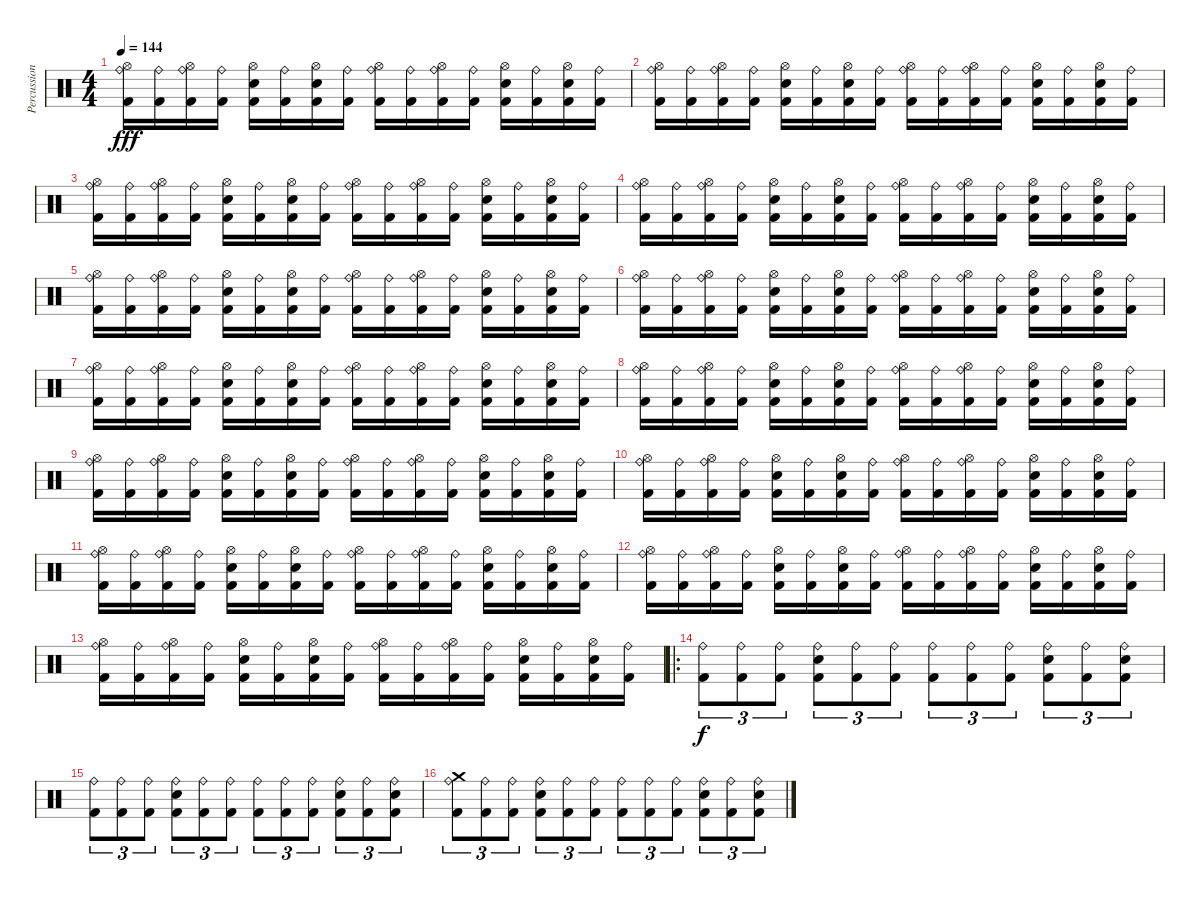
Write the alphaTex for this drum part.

\track ("Percussion -  Bard Faust" "Percussion") {instrument percussion}
\staff {score}
\articulation defaults
\ts (4 4)
\tempo 144
\clef neutral
\ks c
("Hi-Hat (open)" "Ride (bell)" "Kick (hit) 2").16{dy fff} ("Ride (bell)" "Kick (hit) 2").16 ("Hi-Hat (open)" "Ride (bell)" "Kick (hit) 2").16 ("Ride (bell)" "Kick (hit) 2").16 ("Hi-Hat (open)" "Electric Snare (hit)" "Kick (hit) 2").16 ("Ride (bell)" "Kick (hit) 2").16 ("Hi-Hat (open)" "Electric Snare (hit)" "Kick (hit) 2").16 ("Ride (bell)" "Kick (hit) 2").16 ("Hi-Hat (open)" "Ride (bell)" "Kick (hit) 2").16 ("Ride (bell)" "Kick (hit) 2").16 ("Hi-Hat (open)" "Ride (bell)" "Kick (hit) 2").16 ("Ride (bell)" "Kick (hit) 2").16 ("Hi-Hat (open)" "Electric Snare (hit)" "Kick (hit) 2").16 ("Ride (bell)" "Kick (hit) 2").16 ("Hi-Hat (open)" "Electric Snare (hit)" "Kick (hit) 2").16 ("Ride (bell)" "Kick (hit) 2").16 |
("Hi-Hat (open)" "Ride (bell)" "Kick (hit) 2").16 ("Ride (bell)" "Kick (hit) 2").16 ("Hi-Hat (open)" "Ride (bell)" "Kick (hit) 2").16 ("Ride (bell)" "Kick (hit) 2").16 ("Hi-Hat (open)" "Electric Snare (hit)" "Kick (hit) 2").16 ("Ride (bell)" "Kick (hit) 2").16 ("Hi-Hat (open)" "Electric Snare (hit)" "Kick (hit) 2").16 ("Ride (bell)" "Kick (hit) 2").16 ("Hi-Hat (open)" "Ride (bell)" "Kick (hit) 2").16 ("Ride (bell)" "Kick (hit) 2").16 ("Hi-Hat (open)" "Ride (bell)" "Kick (hit) 2").16 ("Ride (bell)" "Kick (hit) 2").16 ("Hi-Hat (open)" "Electric Snare (hit)" "Kick (hit) 2").16 ("Ride (bell)" "Kick (hit) 2").16 ("Hi-Hat (open)" "Electric Snare (hit)" "Kick (hit) 2").16 ("Ride (bell)" "Kick (hit) 2").16 |
("Hi-Hat (open)" "Ride (bell)" "Kick (hit) 2").16 ("Ride (bell)" "Kick (hit) 2").16 ("Hi-Hat (open)" "Ride (bell)" "Kick (hit) 2").16 ("Ride (bell)" "Kick (hit) 2").16 ("Hi-Hat (open)" "Electric Snare (hit)" "Kick (hit) 2").16 ("Ride (bell)" "Kick (hit) 2").16 ("Hi-Hat (open)" "Electric Snare (hit)" "Kick (hit) 2").16 ("Ride (bell)" "Kick (hit) 2").16 ("Hi-Hat (open)" "Ride (bell)" "Kick (hit) 2").16 ("Ride (bell)" "Kick (hit) 2").16 ("Hi-Hat (open)" "Ride (bell)" "Kick (hit) 2").16 ("Ride (bell)" "Kick (hit) 2").16 ("Hi-Hat (open)" "Electric Snare (hit)" "Kick (hit) 2").16 ("Ride (bell)" "Kick (hit) 2").16 ("Hi-Hat (open)" "Electric Snare (hit)" "Kick (hit) 2").16 ("Ride (bell)" "Kick (hit) 2").16 |
("Hi-Hat (open)" "Ride (bell)" "Kick (hit) 2").16 ("Ride (bell)" "Kick (hit) 2").16 ("Hi-Hat (open)" "Ride (bell)" "Kick (hit) 2").16 ("Ride (bell)" "Kick (hit) 2").16 ("Hi-Hat (open)" "Electric Snare (hit)" "Kick (hit) 2").16 ("Ride (bell)" "Kick (hit) 2").16 ("Hi-Hat (open)" "Electric Snare (hit)" "Kick (hit) 2").16 ("Ride (bell)" "Kick (hit) 2").16 ("Hi-Hat (open)" "Ride (bell)" "Kick (hit) 2").16 ("Ride (bell)" "Kick (hit) 2").16 ("Hi-Hat (open)" "Ride (bell)" "Kick (hit) 2").16 ("Ride (bell)" "Kick (hit) 2").16 ("Hi-Hat (open)" "Electric Snare (hit)" "Kick (hit) 2").16 ("Ride (bell)" "Kick (hit) 2").16 ("Hi-Hat (open)" "Electric Snare (hit)" "Kick (hit) 2").16 ("Ride (bell)" "Kick (hit) 2").16 |
("Hi-Hat (open)" "Ride (bell)" "Kick (hit) 2").16 ("Ride (bell)" "Kick (hit) 2").16 ("Hi-Hat (open)" "Ride (bell)" "Kick (hit) 2").16 ("Ride (bell)" "Kick (hit) 2").16 ("Hi-Hat (open)" "Electric Snare (hit)" "Kick (hit) 2").16 ("Ride (bell)" "Kick (hit) 2").16 ("Hi-Hat (open)" "Electric Snare (hit)" "Kick (hit) 2").16 ("Ride (bell)" "Kick (hit) 2").16 ("Hi-Hat (open)" "Ride (bell)" "Kick (hit) 2").16 ("Ride (bell)" "Kick (hit) 2").16 ("Hi-Hat (open)" "Ride (bell)" "Kick (hit) 2").16 ("Ride (bell)" "Kick (hit) 2").16 ("Hi-Hat (open)" "Electric Snare (hit)" "Kick (hit) 2").16 ("Ride (bell)" "Kick (hit) 2").16 ("Hi-Hat (open)" "Electric Snare (hit)" "Kick (hit) 2").16 ("Ride (bell)" "Kick (hit) 2").16 |
("Hi-Hat (open)" "Ride (bell)" "Kick (hit) 2").16 ("Ride (bell)" "Kick (hit) 2").16 ("Hi-Hat (open)" "Ride (bell)" "Kick (hit) 2").16 ("Ride (bell)" "Kick (hit) 2").16 ("Hi-Hat (open)" "Electric Snare (hit)" "Kick (hit) 2").16 ("Ride (bell)" "Kick (hit) 2").16 ("Hi-Hat (open)" "Electric Snare (hit)" "Kick (hit) 2").16 ("Ride (bell)" "Kick (hit) 2").16 ("Hi-Hat (open)" "Ride (bell)" "Kick (hit) 2").16 ("Ride (bell)" "Kick (hit) 2").16 ("Hi-Hat (open)" "Ride (bell)" "Kick (hit) 2").16 ("Ride (bell)" "Kick (hit) 2").16 ("Hi-Hat (open)" "Electric Snare (hit)" "Kick (hit) 2").16 ("Ride (bell)" "Kick (hit) 2").16 ("Hi-Hat (open)" "Electric Snare (hit)" "Kick (hit) 2").16 ("Ride (bell)" "Kick (hit) 2").16 |
("Hi-Hat (open)" "Ride (bell)" "Kick (hit) 2").16 ("Ride (bell)" "Kick (hit) 2").16 ("Hi-Hat (open)" "Ride (bell)" "Kick (hit) 2").16 ("Ride (bell)" "Kick (hit) 2").16 ("Hi-Hat (open)" "Electric Snare (hit)" "Kick (hit) 2").16 ("Ride (bell)" "Kick (hit) 2").16 ("Hi-Hat (open)" "Electric Snare (hit)" "Kick (hit) 2").16 ("Ride (bell)" "Kick (hit) 2").16 ("Hi-Hat (open)" "Ride (bell)" "Kick (hit) 2").16 ("Ride (bell)" "Kick (hit) 2").16 ("Hi-Hat (open)" "Ride (bell)" "Kick (hit) 2").16 ("Ride (bell)" "Kick (hit) 2").16 ("Hi-Hat (open)" "Electric Snare (hit)" "Kick (hit) 2").16 ("Ride (bell)" "Kick (hit) 2").16 ("Hi-Hat (open)" "Electric Snare (hit)" "Kick (hit) 2").16 ("Ride (bell)" "Kick (hit) 2").16 |
("Hi-Hat (open)" "Ride (bell)" "Kick (hit) 2").16 ("Ride (bell)" "Kick (hit) 2").16 ("Hi-Hat (open)" "Ride (bell)" "Kick (hit) 2").16 ("Ride (bell)" "Kick (hit) 2").16 ("Hi-Hat (open)" "Electric Snare (hit)" "Kick (hit) 2").16 ("Ride (bell)" "Kick (hit) 2").16 ("Hi-Hat (open)" "Electric Snare (hit)" "Kick (hit) 2").16 ("Ride (bell)" "Kick (hit) 2").16 ("Hi-Hat (open)" "Ride (bell)" "Kick (hit) 2").16 ("Ride (bell)" "Kick (hit) 2").16 ("Hi-Hat (open)" "Ride (bell)" "Kick (hit) 2").16 ("Ride (bell)" "Kick (hit) 2").16 ("Hi-Hat (open)" "Electric Snare (hit)" "Kick (hit) 2").16 ("Ride (bell)" "Kick (hit) 2").16 ("Hi-Hat (open)" "Electric Snare (hit)" "Kick (hit) 2").16 ("Ride (bell)" "Kick (hit) 2").16 |
("Hi-Hat (open)" "Ride (bell)" "Kick (hit) 2").16 ("Ride (bell)" "Kick (hit) 2").16 ("Hi-Hat (open)" "Ride (bell)" "Kick (hit) 2").16 ("Ride (bell)" "Kick (hit) 2").16 ("Hi-Hat (open)" "Electric Snare (hit)" "Kick (hit) 2").16 ("Ride (bell)" "Kick (hit) 2").16 ("Hi-Hat (open)" "Electric Snare (hit)" "Kick (hit) 2").16 ("Ride (bell)" "Kick (hit) 2").16 ("Hi-Hat (open)" "Ride (bell)" "Kick (hit) 2").16 ("Ride (bell)" "Kick (hit) 2").16 ("Hi-Hat (open)" "Ride (bell)" "Kick (hit) 2").16 ("Ride (bell)" "Kick (hit) 2").16 ("Hi-Hat (open)" "Electric Snare (hit)" "Kick (hit) 2").16 ("Ride (bell)" "Kick (hit) 2").16 ("Hi-Hat (open)" "Electric Snare (hit)" "Kick (hit) 2").16 ("Ride (bell)" "Kick (hit) 2").16 |
("Hi-Hat (open)" "Ride (bell)" "Kick (hit) 2").16 ("Ride (bell)" "Kick (hit) 2").16 ("Hi-Hat (open)" "Ride (bell)" "Kick (hit) 2").16 ("Ride (bell)" "Kick (hit) 2").16 ("Hi-Hat (open)" "Electric Snare (hit)" "Kick (hit) 2").16 ("Ride (bell)" "Kick (hit) 2").16 ("Hi-Hat (open)" "Electric Snare (hit)" "Kick (hit) 2").16 ("Ride (bell)" "Kick (hit) 2").16 ("Hi-Hat (open)" "Ride (bell)" "Kick (hit) 2").16 ("Ride (bell)" "Kick (hit) 2").16 ("Hi-Hat (open)" "Ride (bell)" "Kick (hit) 2").16 ("Ride (bell)" "Kick (hit) 2").16 ("Hi-Hat (open)" "Electric Snare (hit)" "Kick (hit) 2").16 ("Ride (bell)" "Kick (hit) 2").16 ("Hi-Hat (open)" "Electric Snare (hit)" "Kick (hit) 2").16 ("Ride (bell)" "Kick (hit) 2").16 |
("Hi-Hat (open)" "Ride (bell)" "Kick (hit) 2").16 ("Ride (bell)" "Kick (hit) 2").16 ("Hi-Hat (open)" "Ride (bell)" "Kick (hit) 2").16 ("Ride (bell)" "Kick (hit) 2").16 ("Hi-Hat (open)" "Electric Snare (hit)" "Kick (hit) 2").16 ("Ride (bell)" "Kick (hit) 2").16 ("Hi-Hat (open)" "Electric Snare (hit)" "Kick (hit) 2").16 ("Ride (bell)" "Kick (hit) 2").16 ("Hi-Hat (open)" "Ride (bell)" "Kick (hit) 2").16 ("Ride (bell)" "Kick (hit) 2").16 ("Hi-Hat (open)" "Ride (bell)" "Kick (hit) 2").16 ("Ride (bell)" "Kick (hit) 2").16 ("Hi-Hat (open)" "Electric Snare (hit)" "Kick (hit) 2").16 ("Ride (bell)" "Kick (hit) 2").16 ("Hi-Hat (open)" "Electric Snare (hit)" "Kick (hit) 2").16 ("Ride (bell)" "Kick (hit) 2").16 |
("Hi-Hat (open)" "Ride (bell)" "Kick (hit) 2").16 ("Ride (bell)" "Kick (hit) 2").16 ("Hi-Hat (open)" "Ride (bell)" "Kick (hit) 2").16 ("Ride (bell)" "Kick (hit) 2").16 ("Hi-Hat (open)" "Electric Snare (hit)" "Kick (hit) 2").16 ("Ride (bell)" "Kick (hit) 2").16 ("Hi-Hat (open)" "Electric Snare (hit)" "Kick (hit) 2").16 ("Ride (bell)" "Kick (hit) 2").16 ("Hi-Hat (open)" "Ride (bell)" "Kick (hit) 2").16 ("Ride (bell)" "Kick (hit) 2").16 ("Hi-Hat (open)" "Ride (bell)" "Kick (hit) 2").16 ("Ride (bell)" "Kick (hit) 2").16 ("Hi-Hat (open)" "Electric Snare (hit)" "Kick (hit) 2").16 ("Ride (bell)" "Kick (hit) 2").16 ("Hi-Hat (open)" "Electric Snare (hit)" "Kick (hit) 2").16 ("Ride (bell)" "Kick (hit) 2").16 |
("Hi-Hat (open)" "Ride (bell)" "Kick (hit) 2").16 ("Ride (bell)" "Kick (hit) 2").16 ("Hi-Hat (open)" "Ride (bell)" "Kick (hit) 2").16 ("Ride (bell)" "Kick (hit) 2").16 ("Hi-Hat (open)" "Electric Snare (hit)" "Kick (hit) 2").16 ("Ride (bell)" "Kick (hit) 2").16 ("Hi-Hat (open)" "Electric Snare (hit)" "Kick (hit) 2").16 ("Ride (bell)" "Kick (hit) 2").16 ("Hi-Hat (open)" "Ride (bell)" "Kick (hit) 2").16 ("Ride (bell)" "Kick (hit) 2").16 ("Hi-Hat (open)" "Ride (bell)" "Kick (hit) 2").16 ("Ride (bell)" "Kick (hit) 2").16 ("Hi-Hat (open)" "Electric Snare (hit)" "Kick (hit) 2").16 ("Ride (bell)" "Kick (hit) 2").16 ("Hi-Hat (open)" "Electric Snare (hit)" "Kick (hit) 2").16 ("Ride (bell)" "Kick (hit) 2").16 |
\ro
("Ride (bell)" "Kick (hit) 2").8{tu (3 2) dy f} ("Ride (bell)" "Kick (hit) 2").8{tu (3 2)} ("Ride (bell)" "Kick (hit) 2").8{tu (3 2)} ("Ride (bell)" "Electric Snare (hit)" "Kick (hit) 2").8{tu (3 2)} ("Ride (bell)" "Kick (hit) 2").8{tu (3 2)} ("Ride (bell)" "Kick (hit) 2").8{tu (3 2)} ("Ride (bell)" "Kick (hit) 2").8{tu (3 2)} ("Ride (bell)" "Kick (hit) 2").8{tu (3 2)} ("Ride (bell)" "Kick (hit) 2").8{tu (3 2)} ("Ride (bell)" "Electric Snare (hit)" "Kick (hit) 2").8{tu (3 2)} ("Ride (bell)" "Kick (hit) 2").8{tu (3 2)} ("Ride (bell)" "Electric Snare (hit)" "Kick (hit) 2").8{tu (3 2)} |
("Ride (bell)" "Kick (hit) 2").8{tu (3 2)} ("Ride (bell)" "Kick (hit) 2").8{tu (3 2)} ("Ride (bell)" "Kick (hit) 2").8{tu (3 2)} ("Ride (bell)" "Electric Snare (hit)" "Kick (hit) 2").8{tu (3 2)} ("Ride (bell)" "Kick (hit) 2").8{tu (3 2)} ("Ride (bell)" "Kick (hit) 2").8{tu (3 2)} ("Ride (bell)" "Kick (hit) 2").8{tu (3 2)} ("Ride (bell)" "Kick (hit) 2").8{tu (3 2)} ("Ride (bell)" "Kick (hit) 2").8{tu (3 2)} ("Ride (bell)" "Electric Snare (hit)" "Kick (hit) 2").8{tu (3 2)} ("Ride (bell)" "Kick (hit) 2").8{tu (3 2)} ("Ride (bell)" "Electric Snare (hit)" "Kick (hit) 2").8{tu (3 2)} |
("Ride (bell)" "Crash medium (hit)" "Kick (hit) 2").8{tu (3 2)} ("Ride (bell)" "Kick (hit) 2").8{tu (3 2)} ("Ride (bell)" "Kick (hit) 2").8{tu (3 2)} ("Ride (bell)" "Electric Snare (hit)" "Kick (hit) 2").8{tu (3 2)} ("Ride (bell)" "Kick (hit) 2").8{tu (3 2)} ("Ride (bell)" "Kick (hit) 2").8{tu (3 2)} ("Ride (bell)" "Kick (hit) 2").8{tu (3 2)} ("Ride (bell)" "Kick (hit) 2").8{tu (3 2)} ("Ride (bell)" "Kick (hit) 2").8{tu (3 2)} ("Ride (bell)" "Electric Snare (hit)" "Kick (hit) 2").8{tu (3 2)} ("Ride (bell)" "Kick (hit) 2").8{tu (3 2)} ("Ride (bell)" "Electric Snare (hit)" "Kick (hit) 2").8{tu (3 2)}
